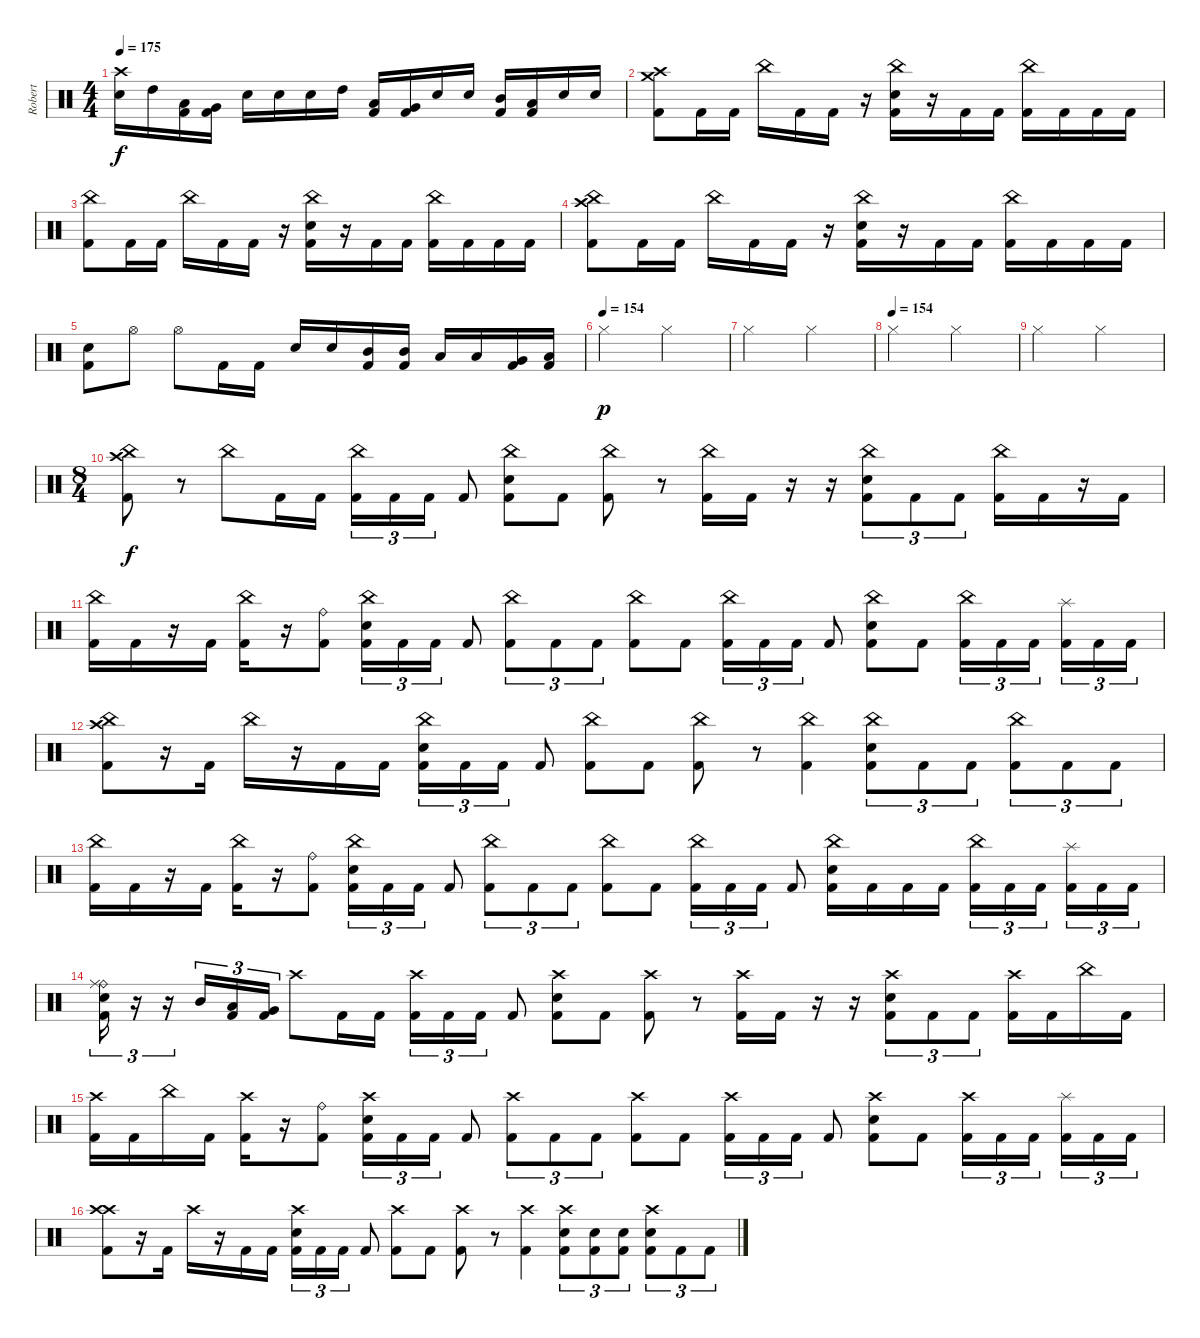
\track ("Robert" "Robert") {instrument percussion}
\staff {score}
\articulation defaults
\ts (4 4)
\tempo 175
\clef neutral
\ks c
("Crash high (hit)" "Electric Snare (hit)").16{dy f} "High Tom (hit)".16 ("Low Tom (hit)" "Kick (hit) 2").16 ("Very Low Tom (hit)" "Kick (hit) 2").16 "Electric Snare (hit)".16 "Electric Snare (hit)".16 "Electric Snare (hit)".16 "High Tom (hit)".16 ("Low Tom (hit)" "Kick (hit) 2").16 ("Very Low Tom (hit)" "Kick (hit) 2").16 "Electric Snare (hit)".16 "Electric Snare (hit)".16 ("Mid Tom (hit)" "Kick (hit) 2").16 ("Low Tom (hit)" "Kick (hit) 2").16 "Electric Snare (hit)".16 "Electric Snare (hit)".16 |
("Crash high (hit)" "Crash medium (hit)" "Kick (hit) 2").8 "Kick (hit) 2".16 "Kick (hit) 2".16 "China (hit)".16 "Kick (hit) 2".16 "Kick (hit) 2".16 r.16 ("China (hit)" "Electric Snare (hit)" "Kick (hit) 2").16 r.16 "Kick (hit) 2".16 "Kick (hit) 2".16 ("China (hit)" "Kick (hit) 2").16 "Kick (hit) 2".16 "Kick (hit) 2".16 "Kick (hit) 2".16 |
("China (hit)" "Kick (hit) 2").8 "Kick (hit) 2".16 "Kick (hit) 2".16 "China (hit)".16 "Kick (hit) 2".16 "Kick (hit) 2".16 r.16 ("China (hit)" "Electric Snare (hit)" "Kick (hit) 2").16 r.16 "Kick (hit) 2".16 "Kick (hit) 2".16 ("China (hit)" "Kick (hit) 2").16 "Kick (hit) 2".16 "Kick (hit) 2".16 "Kick (hit) 2".16 |
("Crash high (hit)" "China (hit)" "Kick (hit) 2").8 "Kick (hit) 2".16 "Kick (hit) 2".16 "China (hit)".16 "Kick (hit) 2".16 "Kick (hit) 2".16 r.16 ("China (hit)" "Electric Snare (hit)" "Kick (hit) 2").16 r.16 "Kick (hit) 2".16 "Kick (hit) 2".16 ("China (hit)" "Kick (hit) 2").16 "Kick (hit) 2".16 "Kick (hit) 2".16 "Kick (hit) 2".16 |
("Electric Snare (hit)" "Kick (hit) 2").8 "Hi-Hat (open)".8 "Hi-Hat (open)".8 "Kick (hit) 2".16 "Kick (hit) 2".16 "Electric Snare (hit)".16 "Electric Snare (hit)".16 ("Mid Tom (hit)" "Kick (hit) 2").16 ("Mid Tom (hit)" "Kick (hit) 2").16 "Low Tom (hit)".16 "Low Tom (hit)".16 ("Very Low Tom (hit)" "Kick (hit) 2").16 ("Low Floor Tom (hit)" "Kick (hit) 2").16 |
\tempo (154)
"Hi-Hat (closed)".2{dy p} "Hi-Hat (closed)".2 |
"Hi-Hat (closed)".2 "Hi-Hat (closed)".2 |
\tempo (154)
"Hi-Hat (closed)".2 "Hi-Hat (closed)".2 |
"Hi-Hat (closed)".2 "Hi-Hat (closed)".2 |
\ts (8 4)
("Crash high (hit)" "China (hit)" "Kick (hit) 2").8{dy f} r.8 "China (hit)".8 "Kick (hit) 2".16 "Kick (hit) 2".16 ("China (hit)" "Kick (hit) 2").16{tu (3 2)} "Kick (hit) 2".16{tu (3 2)} "Kick (hit) 2".16{tu (3 2)} "Kick (hit) 2".8 ("China (hit)" "Electric Snare (hit)" "Kick (hit) 2").8 "Kick (hit) 2".8 ("Kick (hit) 2" "China (hit)").8 r.8 ("China (hit)" "Kick (hit) 2").16 "Kick (hit) 2".16 r.16 r.16 ("Electric Snare (hit)" "China (hit)" "Kick (hit) 2").8{tu (3 2)} "Kick (hit) 2".8{tu (3 2)} "Kick (hit) 2".8{tu (3 2)} ("China (hit)" "Kick (hit) 2").16 "Kick (hit) 2".16 r.16 "Kick (hit) 2".16 |
("China (hit)" "Kick (hit) 2").16 "Kick (hit) 2".16 r.16 "Kick (hit) 2".16 ("China (hit)" "Kick (hit) 2").16 r.16 ("Ride (bell)" "Kick (hit) 2").8 ("China (hit)" "Electric Snare (hit)" "Kick (hit) 2").16{tu (3 2)} "Kick (hit) 2".16{tu (3 2)} "Kick (hit) 2".16{tu (3 2)} "Kick (hit) 2".8 ("China (hit)" "Kick (hit) 2").8{tu (3 2)} "Kick (hit) 2".8{tu (3 2)} "Kick (hit) 2".8{tu (3 2)} ("China (hit)" "Kick (hit) 2").8 "Kick (hit) 2".8 ("China (hit)" "Kick (hit) 2").16{tu (3 2)} "Kick (hit) 2".16{tu (3 2)} "Kick (hit) 2".16{tu (3 2)} "Kick (hit) 2".8 ("China (hit)" "Electric Snare (hit)" "Kick (hit) 2").8 "Kick (hit) 2".8 ("China (hit)" "Kick (hit) 2").16{tu (3 2)} "Kick (hit) 2".16{tu (3 2)} "Kick (hit) 2".16{tu (3 2) beam splitsecondary} ("Kick (hit) 2" "Splash (hit)").16{tu (3 2)} "Kick (hit) 2".16{tu (3 2)} "Kick (hit) 2".16{tu (3 2)} |
("China (hit)" "Crash high (hit)" "Kick (hit) 2").8 r.16 "Kick (hit) 2".16 "China (hit)".16 r.16 "Kick (hit) 2".16 "Kick (hit) 2".16 ("China (hit)" "Electric Snare (hit)" "Kick (hit) 2").16{tu (3 2)} "Kick (hit) 2".16{tu (3 2)} "Kick (hit) 2".16{tu (3 2)} "Kick (hit) 2".8 ("China (hit)" "Kick (hit) 2").8 "Kick (hit) 2".8 ("China (hit)" "Kick (hit) 2").8 r.8 ("China (hit)" "Kick (hit) 2").4 ("China (hit)" "Electric Snare (hit)" "Kick (hit) 2").8{tu (3 2)} "Kick (hit) 2".8{tu (3 2)} "Kick (hit) 2".8{tu (3 2)} ("China (hit)" "Kick (hit) 2").8{tu (3 2)} "Kick (hit) 2".8{tu (3 2)} "Kick (hit) 2".8{tu (3 2)} |
("China (hit)" "Kick (hit) 2").16 "Kick (hit) 2".16 r.16 "Kick (hit) 2".16 ("China (hit)" "Kick (hit) 2").16 r.16 ("Ride (bell)" "Kick (hit) 2").8 ("China (hit)" "Electric Snare (hit)" "Kick (hit) 2").16{tu (3 2)} "Kick (hit) 2".16{tu (3 2)} "Kick (hit) 2".16{tu (3 2)} "Kick (hit) 2".8 ("China (hit)" "Kick (hit) 2").8{tu (3 2)} "Kick (hit) 2".8{tu (3 2)} "Kick (hit) 2".8{tu (3 2)} ("China (hit)" "Kick (hit) 2").8 "Kick (hit) 2".8 ("China (hit)" "Kick (hit) 2").16{tu (3 2)} "Kick (hit) 2".16{tu (3 2)} "Kick (hit) 2".16{tu (3 2)} "Kick (hit) 2".8 ("China (hit)" "Electric Snare (hit)" "Kick (hit) 2").16 "Kick (hit) 2".16 "Kick (hit) 2".16 "Kick (hit) 2".16 ("China (hit)" "Kick (hit) 2").16{tu (3 2)} "Kick (hit) 2".16{tu (3 2)} "Kick (hit) 2".16{tu (3 2) beam splitsecondary} ("Splash (hit)" "Kick (hit) 2").16{tu (3 2)} "Kick (hit) 2".16{tu (3 2)} "Kick (hit) 2".16{tu (3 2)} |
("Ride (bell)" "Ride (middle)" "Electric Snare (hit)" "Kick (hit) 2").16{tu (3 2)} r.16{tu (3 2)} r.16{tu (3 2)} "Mid Tom (hit)".16{tu (3 2)} ("Low Tom (hit)" "Kick (hit) 2").16{tu (3 2)} ("Very Low Tom (hit)" "Kick (hit) 2").16{tu (3 2)} "Crash high (hit)".8 "Kick (hit) 2".16 "Kick (hit) 2".16 ("Crash high (hit)" "Kick (hit) 2").16{tu (3 2)} "Kick (hit) 2".16{tu (3 2)} "Kick (hit) 2".16{tu (3 2)} "Kick (hit) 2".8 ("Crash high (hit)" "Electric Snare (hit)" "Kick (hit) 2").8 "Kick (hit) 2".8 ("Kick (hit) 2" "Crash high (hit)").8 r.8 ("Crash high (hit)" "Kick (hit) 2").16 "Kick (hit) 2".16 r.16 r.16 ("Electric Snare (hit)" "Crash high (hit)" "Kick (hit) 2").8{tu (3 2)} "Kick (hit) 2".8{tu (3 2)} "Kick (hit) 2".8{tu (3 2)} ("Crash high (hit)" "Kick (hit) 2").16 "Kick (hit) 2".16 "China (hit)".16 "Kick (hit) 2".16 |
("Crash high (hit)" "Kick (hit) 2").16 "Kick (hit) 2".16 "China (hit)".16 "Kick (hit) 2".16 ("Crash high (hit)" "Kick (hit) 2").16 r.16 ("Ride (bell)" "Kick (hit) 2").8 ("Crash high (hit)" "Electric Snare (hit)" "Kick (hit) 2").16{tu (3 2)} "Kick (hit) 2".16{tu (3 2)} "Kick (hit) 2".16{tu (3 2)} "Kick (hit) 2".8 ("Crash high (hit)" "Kick (hit) 2").8{tu (3 2)} "Kick (hit) 2".8{tu (3 2)} "Kick (hit) 2".8{tu (3 2)} ("Crash high (hit)" "Kick (hit) 2").8 "Kick (hit) 2".8 ("Crash high (hit)" "Kick (hit) 2").16{tu (3 2)} "Kick (hit) 2".16{tu (3 2)} "Kick (hit) 2".16{tu (3 2)} "Kick (hit) 2".8 ("Crash high (hit)" "Electric Snare (hit)" "Kick (hit) 2").8 "Kick (hit) 2".8 ("Crash high (hit)" "Kick (hit) 2").16{tu (3 2)} "Kick (hit) 2".16{tu (3 2)} "Kick (hit) 2".16{tu (3 2) beam splitsecondary} ("Kick (hit) 2" "Splash (hit)").16{tu (3 2)} "Kick (hit) 2".16{tu (3 2)} "Kick (hit) 2".16{tu (3 2)} |
("Crash high (hit)" "Crash high (hit)" "Kick (hit) 2").8 r.16 "Kick (hit) 2".16 "Crash high (hit)".16 r.16 "Kick (hit) 2".16 "Kick (hit) 2".16 ("Crash high (hit)" "Electric Snare (hit)" "Kick (hit) 2").16{tu (3 2)} "Kick (hit) 2".16{tu (3 2)} "Kick (hit) 2".16{tu (3 2)} "Kick (hit) 2".8 ("Crash high (hit)" "Kick (hit) 2").8 "Kick (hit) 2".8 ("Crash high (hit)" "Kick (hit) 2").8 r.8 ("Crash high (hit)" "Kick (hit) 2").4 ("Crash high (hit)" "Electric Snare (hit)" "Kick (hit) 2").8{tu (3 2)} ("Electric Snare (hit)" "Kick (hit) 2").8{tu (3 2)} ("Electric Snare (hit)" "Kick (hit) 2").8{tu (3 2)} ("Crash high (hit)" "Electric Snare (hit)" "Kick (hit) 2").8{tu (3 2)} "Kick (hit) 2".8{tu (3 2)} "Kick (hit) 2".8{tu (3 2)}
